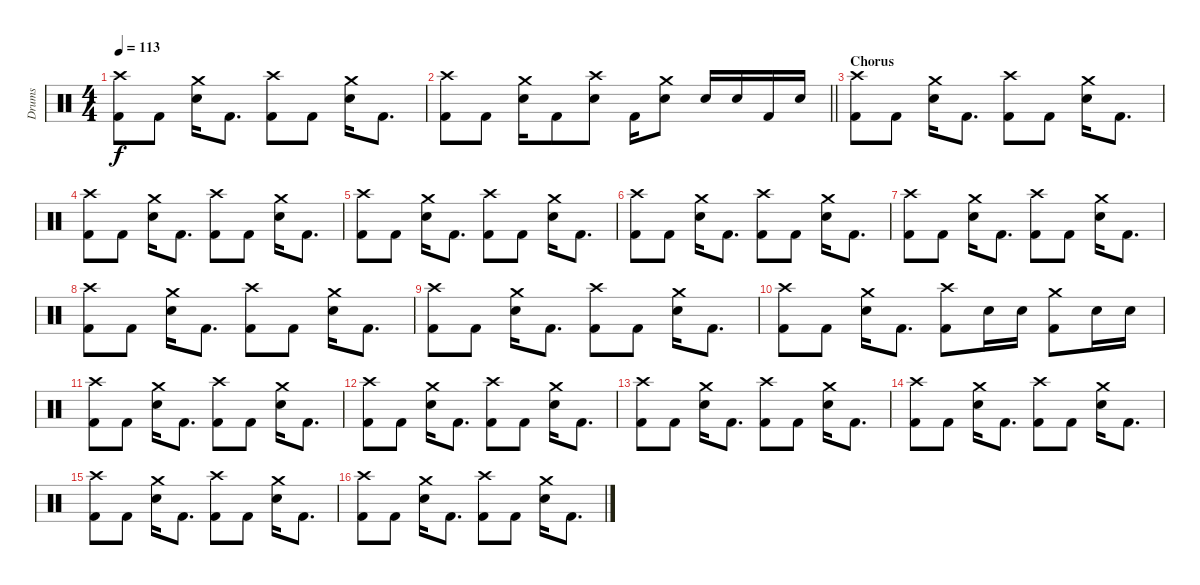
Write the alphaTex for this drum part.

\track ("Drums" "Drums") {instrument percussion}
\staff {score}
\articulation defaults
\ts (4 4)
\tempo 113
\clef neutral
\ks c
("Kick (hit) 2" "Crash high (hit)").8{dy f} "Kick (hit) 2".8 ("Crash medium (hit)" "Electric Snare (hit)").16 "Kick (hit) 2".8{d} ("Kick (hit) 2" "Crash high (hit)").8 "Kick (hit) 2".8 ("Crash medium (hit)" "Electric Snare (hit)").16 "Kick (hit) 2".8{d} |
\barLineRight lightlight
("Kick (hit) 2" "Crash high (hit)").8 "Kick (hit) 2".8 ("Crash medium (hit)" "Electric Snare (hit)").16 "Kick (hit) 2".8 ("Crash high (hit)" "Electric Snare (hit)").8 "Kick (hit) 2".16 ("Crash medium (hit)" "Electric Snare (hit)").8 "Electric Snare (hit)".16 "Electric Snare (hit)".16 "Kick (hit) 2".16 "Electric Snare (hit)".16 |
\section ("" "Chorus")
("Kick (hit) 2" "Crash high (hit)").8 "Kick (hit) 2".8 ("Crash medium (hit)" "Electric Snare (hit)").16 "Kick (hit) 2".8{d} ("Kick (hit) 2" "Crash high (hit)").8 "Kick (hit) 2".8 ("Crash medium (hit)" "Electric Snare (hit)").16 "Kick (hit) 2".8{d} |
("Kick (hit) 2" "Crash high (hit)").8 "Kick (hit) 2".8 ("Crash medium (hit)" "Electric Snare (hit)").16 "Kick (hit) 2".8{d} ("Kick (hit) 2" "Crash high (hit)").8 "Kick (hit) 2".8 ("Crash medium (hit)" "Electric Snare (hit)").16 "Kick (hit) 2".8{d} |
("Kick (hit) 2" "Crash high (hit)").8 "Kick (hit) 2".8 ("Crash medium (hit)" "Electric Snare (hit)").16 "Kick (hit) 2".8{d} ("Kick (hit) 2" "Crash high (hit)").8 "Kick (hit) 2".8 ("Crash medium (hit)" "Electric Snare (hit)").16 "Kick (hit) 2".8{d} |
("Kick (hit) 2" "Crash high (hit)").8 "Kick (hit) 2".8 ("Crash medium (hit)" "Electric Snare (hit)").16 "Kick (hit) 2".8{d} ("Kick (hit) 2" "Crash high (hit)").8 "Kick (hit) 2".8 ("Crash medium (hit)" "Electric Snare (hit)").16 "Kick (hit) 2".8{d} |
("Kick (hit) 2" "Crash high (hit)").8 "Kick (hit) 2".8 ("Crash medium (hit)" "Electric Snare (hit)").16 "Kick (hit) 2".8{d} ("Kick (hit) 2" "Crash high (hit)").8 "Kick (hit) 2".8 ("Crash medium (hit)" "Electric Snare (hit)").16 "Kick (hit) 2".8{d} |
("Kick (hit) 2" "Crash high (hit)").8 "Kick (hit) 2".8 ("Crash medium (hit)" "Electric Snare (hit)").16 "Kick (hit) 2".8{d} ("Kick (hit) 2" "Crash high (hit)").8 "Kick (hit) 2".8 ("Crash medium (hit)" "Electric Snare (hit)").16 "Kick (hit) 2".8{d} |
("Kick (hit) 2" "Crash high (hit)").8 "Kick (hit) 2".8 ("Crash medium (hit)" "Electric Snare (hit)").16 "Kick (hit) 2".8{d} ("Kick (hit) 2" "Crash high (hit)").8 "Kick (hit) 2".8 ("Crash medium (hit)" "Electric Snare (hit)").16 "Kick (hit) 2".8{d} |
("Kick (hit) 2" "Crash high (hit)").8 "Kick (hit) 2".8 ("Crash medium (hit)" "Electric Snare (hit)").16 "Kick (hit) 2".8{d} ("Kick (hit) 2" "Crash high (hit)").8 "Electric Snare (hit)".16 "Electric Snare (hit)".16 ("Kick (hit) 2" "Crash medium (hit)").8 "Electric Snare (hit)".16 "Electric Snare (hit)".16 |
("Kick (hit) 2" "Crash high (hit)").8 "Kick (hit) 2".8 ("Crash medium (hit)" "Electric Snare (hit)").16 "Kick (hit) 2".8{d} ("Kick (hit) 2" "Crash high (hit)").8 "Kick (hit) 2".8 ("Crash medium (hit)" "Electric Snare (hit)").16 "Kick (hit) 2".8{d} |
("Kick (hit) 2" "Crash high (hit)").8 "Kick (hit) 2".8 ("Crash medium (hit)" "Electric Snare (hit)").16 "Kick (hit) 2".8{d} ("Kick (hit) 2" "Crash high (hit)").8 "Kick (hit) 2".8 ("Crash medium (hit)" "Electric Snare (hit)").16 "Kick (hit) 2".8{d} |
("Kick (hit) 2" "Crash high (hit)").8 "Kick (hit) 2".8 ("Crash medium (hit)" "Electric Snare (hit)").16 "Kick (hit) 2".8{d} ("Kick (hit) 2" "Crash high (hit)").8 "Kick (hit) 2".8 ("Crash medium (hit)" "Electric Snare (hit)").16 "Kick (hit) 2".8{d} |
("Kick (hit) 2" "Crash high (hit)").8 "Kick (hit) 2".8 ("Crash medium (hit)" "Electric Snare (hit)").16 "Kick (hit) 2".8{d} ("Kick (hit) 2" "Crash high (hit)").8 "Kick (hit) 2".8 ("Crash medium (hit)" "Electric Snare (hit)").16 "Kick (hit) 2".8{d} |
("Kick (hit) 2" "Crash high (hit)").8 "Kick (hit) 2".8 ("Crash medium (hit)" "Electric Snare (hit)").16 "Kick (hit) 2".8{d} ("Kick (hit) 2" "Crash high (hit)").8 "Kick (hit) 2".8 ("Crash medium (hit)" "Electric Snare (hit)").16 "Kick (hit) 2".8{d} |
("Kick (hit) 2" "Crash high (hit)").8 "Kick (hit) 2".8 ("Crash medium (hit)" "Electric Snare (hit)").16 "Kick (hit) 2".8{d} ("Kick (hit) 2" "Crash high (hit)").8 "Kick (hit) 2".8 ("Crash medium (hit)" "Electric Snare (hit)").16 "Kick (hit) 2".8{d}
